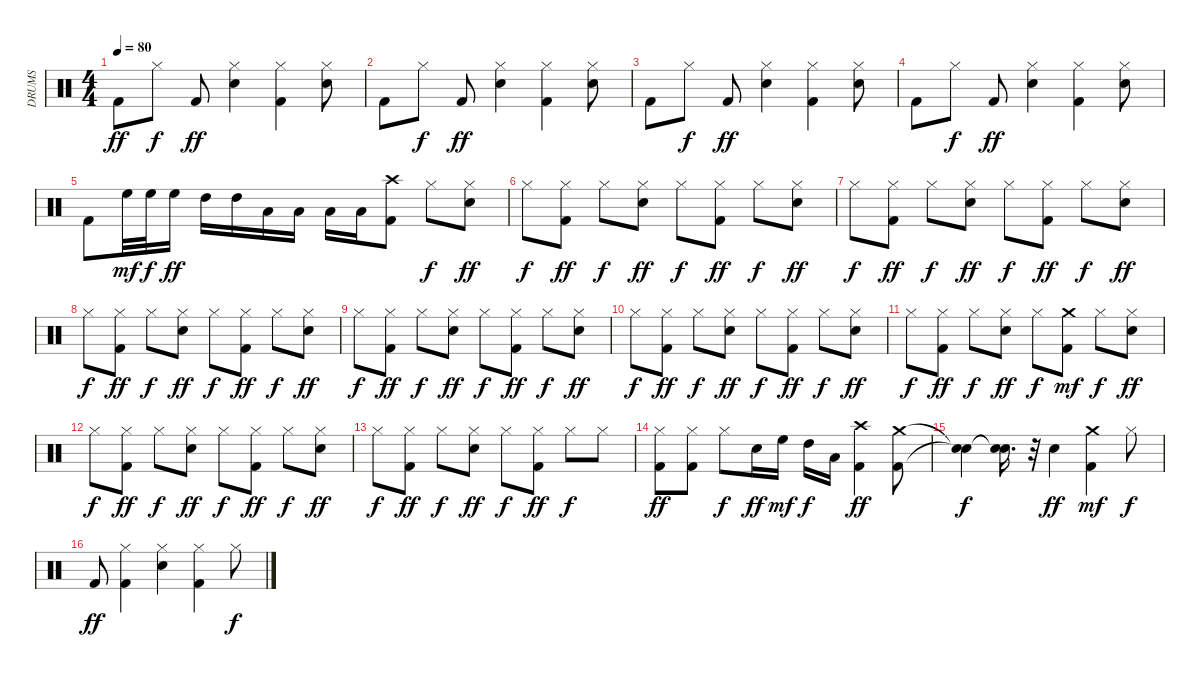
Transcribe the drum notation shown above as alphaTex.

\track ("DRUMS                               " "DRUMS     ") {instrument percussion}
\staff {score}
\articulation defaults
\ts (4 4)
\tempo 80
\clef neutral
\ks c "Kick (hit) 2".8{dy ff} "Hi-Hat (closed)".8{dy f} "Kick (hit) 2".8{dy ff}
("Snare (hit) 2" "Hi-Hat (closed)").4 ("Kick (hit) 2" "Hi-Hat (closed)").4 ("Snare (hit) 2" "Hi-Hat (closed)").8 |
"Kick (hit) 2".8 "Hi-Hat (closed)".8{dy f} "Kick (hit) 2".8{dy ff} ("Snare (hit) 2" "Hi-Hat (closed)").4 ("Kick (hit) 2" "Hi-Hat (closed)").4 ("Snare (hit) 2" "Hi-Hat (closed)").8 |
"Kick (hit) 2".8 "Hi-Hat (closed)".8{dy f} "Kick (hit) 2".8{dy ff} ("Snare (hit) 2" "Hi-Hat (closed)").4 ("Kick (hit) 2" "Hi-Hat (closed)").4 ("Snare (hit) 2" "Hi-Hat (closed)").8 |
"Kick (hit) 2".8 "Hi-Hat (closed)".8{dy f} "Kick (hit) 2".8{dy ff} ("Snare (hit) 2" "Hi-Hat (closed)").4 ("Kick (hit) 2" "Hi-Hat (closed)").4 ("Snare (hit) 2" "Hi-Hat (closed)").8 |
"Kick (hit) 2".8 "High Floor Tom (hit)".32{dy mf} "High Floor Tom (hit)".32{dy f} "High Floor Tom (hit)".16{dy ff} "High Tom (hit)".16 "High Tom (hit)".16 "Low Tom (hit)".16 "Low Tom (hit)".16 "Low Floor Tom (hit)".16 "Low Floor Tom (hit)".16 ("Kick (hit) 2" "Crash high (hit)").8 "Hi-Hat (closed)".8{dy f} ("Snare (hit) 2" "Hi-Hat (closed)").8{dy ff} |
"Hi-Hat (closed)".8{dy f} ("Kick (hit) 2" "Hi-Hat (closed)").8{dy ff} "Hi-Hat (closed)".8{dy f} ("Snare (hit) 2" "Hi-Hat (closed)").8{dy ff} "Hi-Hat (closed)".8{dy f} ("Kick (hit) 2" "Hi-Hat (closed)").8{dy ff} "Hi-Hat (closed)".8{dy f} ("Snare (hit) 2" "Hi-Hat (closed)").8{dy ff} |
"Hi-Hat (closed)".8{dy f} ("Kick (hit) 2" "Hi-Hat (closed)").8{dy ff} "Hi-Hat (closed)".8{dy f} ("Snare (hit) 2" "Hi-Hat (closed)").8{dy ff} "Hi-Hat (closed)".8{dy f} ("Kick (hit) 2" "Hi-Hat (closed)").8{dy ff} "Hi-Hat (closed)".8{dy f} ("Snare (hit) 2" "Hi-Hat (closed)").8{dy ff} |
"Hi-Hat (closed)".8{dy f} ("Kick (hit) 2" "Hi-Hat (closed)").8{dy ff} "Hi-Hat (closed)".8{dy f} ("Snare (hit) 2" "Hi-Hat (closed)").8{dy ff} "Hi-Hat (closed)".8{dy f} ("Kick (hit) 2" "Hi-Hat (closed)").8{dy ff} "Hi-Hat (closed)".8{dy f} ("Snare (hit) 2" "Hi-Hat (closed)").8{dy ff} |
"Hi-Hat (closed)".8{dy f} ("Kick (hit) 2" "Hi-Hat (closed)").8{dy ff} "Hi-Hat (closed)".8{dy f} ("Snare (hit) 2" "Hi-Hat (closed)").8{dy ff} "Hi-Hat (closed)".8{dy f} ("Kick (hit) 2" "Hi-Hat (closed)").8{dy ff} "Hi-Hat (closed)".8{dy f} ("Snare (hit) 2" "Hi-Hat (closed)").8{dy ff} |
"Hi-Hat (closed)".8{dy f} ("Kick (hit) 2" "Hi-Hat (closed)").8{dy ff} "Hi-Hat (closed)".8{dy f} ("Snare (hit) 2" "Hi-Hat (closed)").8{dy ff} "Hi-Hat (closed)".8{dy f} ("Kick (hit) 2" "Hi-Hat (closed)").8{dy ff} "Hi-Hat (closed)".8{dy f} ("Snare (hit) 2" "Hi-Hat (closed)").8{dy ff} |
"Hi-Hat (closed)".8{dy f} ("Kick (hit) 2" "Hi-Hat (closed)").8{dy ff} "Hi-Hat (closed)".8{dy f} ("Snare (hit) 2" "Hi-Hat (closed)").8{dy ff} "Hi-Hat (closed)".8{dy f} ("Kick (hit) 2" "Crash medium (hit)").8{dy mf} "Hi-Hat (closed)".8{dy f} ("Snare (hit) 2" "Hi-Hat (closed)").8{dy ff} |
"Hi-Hat (closed)".8{dy f} ("Kick (hit) 2" "Hi-Hat (closed)").8{dy ff} "Hi-Hat (closed)".8{dy f} ("Snare (hit) 2" "Hi-Hat (closed)").8{dy ff} "Hi-Hat (closed)".8{dy f} ("Kick (hit) 2" "Hi-Hat (closed)").8{dy ff} "Hi-Hat (closed)".8{dy f} ("Snare (hit) 2" "Hi-Hat (closed)").8{dy ff} |
"Hi-Hat (closed)".8{dy f} ("Kick (hit) 2" "Hi-Hat (closed)").8{dy ff} "Hi-Hat (closed)".8{dy f} ("Snare (hit) 2" "Hi-Hat (closed)").8{dy ff} "Hi-Hat (closed)".8{dy f} ("Kick (hit) 2" "Hi-Hat (closed)").8{dy ff} "Hi-Hat (closed)".8{dy f} "Hi-Hat (closed)".8 |
("Kick (hit) 2" "Hi-Hat (closed)").8{dy ff} ("Kick (hit) 2" "Hi-Hat (closed)").8 "Hi-Hat (closed)".8{dy f} "Snare (hit) 2".16{dy ff} "High Floor Tom (hit)".16{dy mf} "High Tom (hit)".16{dy f} "Low Tom (hit)".16 ("Kick (hit) 2" "Crash high (hit)").4{dy ff} ("Kick (hit) 2" "Crash medium (hit)").8 |
("Snare (hit)"{t} "Snare (hit)"{t}).4{dy f} ("Snare (hit)"{t} "Snare (hit)"{t}).16{d} r.32 "Snare (hit) 2".4{dy ff} ("Kick (hit) 2" "Crash medium (hit)").4{dy mf} "Hi-Hat (closed)".8{dy f} |
"Kick (hit) 2".8{dy ff} ("Kick (hit) 2" "Hi-Hat (closed)").4 ("Snare (hit) 2" "Hi-Hat (closed)").4 ("Kick (hit) 2" "Hi-Hat (closed)").4 "Hi-Hat (closed)".8{dy f}
